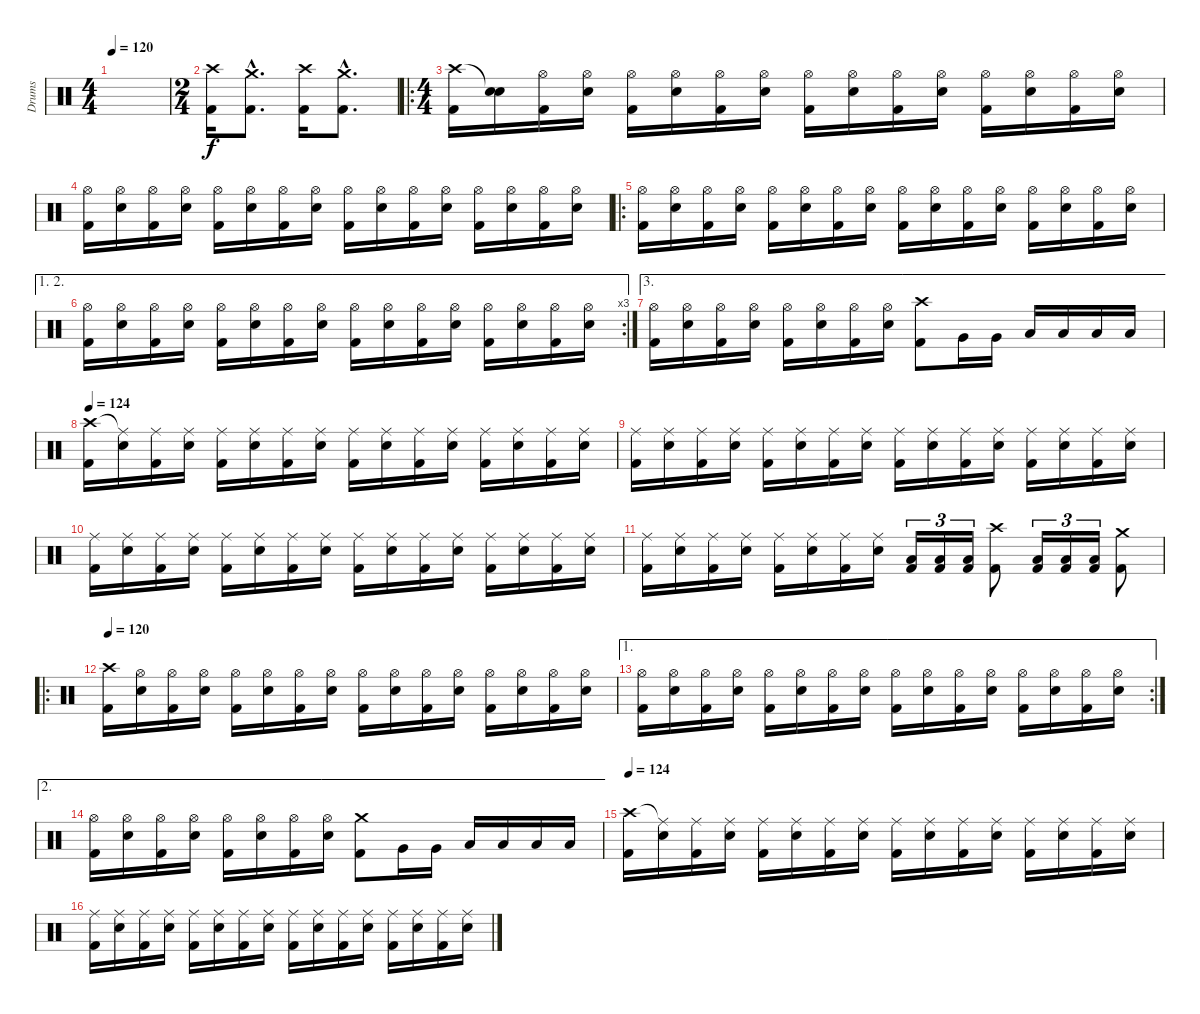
\track ("Drums" "Drums") {instrument percussion}
\staff {score}
\articulation defaults
\ts (4 4)
\tempo 120
\clef neutral
\ks c
|
\ts (2 4)
("Crash high (hit)" "Kick (hit) 2").16 ("Crash medium (hit)"{hac} "Kick (hit) 2"{hac}).8{d} ("Crash high (hit)" "Kick (hit) 2").16 ("Crash medium (hit)"{hac} "Kick (hit) 2"{hac}).8{d} |
\ro
\ts (4 4)
("Crash high (hit)" "Kick (hit) 2").16 ("Snare (hit)"{t} "Snare (hit) 2").16 ("Hi-Hat (open)" "Kick (hit) 2").16 ("Hi-Hat (open)" "Snare (hit) 2").16 ("Hi-Hat (open)" "Kick (hit) 2").16 ("Hi-Hat (open)" "Snare (hit) 2").16 ("Hi-Hat (open)" "Kick (hit) 2").16 ("Hi-Hat (open)" "Snare (hit) 2").16 ("Hi-Hat (open)" "Kick (hit) 2").16 ("Hi-Hat (open)" "Snare (hit) 2").16 ("Hi-Hat (open)" "Kick (hit) 2").16 ("Hi-Hat (open)" "Snare (hit) 2").16 ("Hi-Hat (open)" "Kick (hit) 2").16 ("Hi-Hat (open)" "Snare (hit) 2").16 ("Hi-Hat (open)" "Kick (hit) 2").16 ("Hi-Hat (open)" "Snare (hit) 2").16 |
("Hi-Hat (open)" "Kick (hit) 2").16 ("Hi-Hat (open)" "Snare (hit) 2").16 ("Hi-Hat (open)" "Kick (hit) 2").16 ("Hi-Hat (open)" "Snare (hit) 2").16 ("Hi-Hat (open)" "Kick (hit) 2").16 ("Hi-Hat (open)" "Snare (hit) 2").16 ("Hi-Hat (open)" "Kick (hit) 2").16 ("Hi-Hat (open)" "Snare (hit) 2").16 ("Hi-Hat (open)" "Kick (hit) 2").16 ("Hi-Hat (open)" "Snare (hit) 2").16 ("Hi-Hat (open)" "Kick (hit) 2").16 ("Hi-Hat (open)" "Snare (hit) 2").16 ("Hi-Hat (open)" "Kick (hit) 2").16 ("Hi-Hat (open)" "Snare (hit) 2").16 ("Hi-Hat (open)" "Kick (hit) 2").16 ("Hi-Hat (open)" "Snare (hit) 2").16 |
\ro
("Hi-Hat (open)" "Kick (hit) 2").16 ("Hi-Hat (open)" "Snare (hit) 2").16 ("Hi-Hat (open)" "Kick (hit) 2").16 ("Hi-Hat (open)" "Snare (hit) 2").16 ("Hi-Hat (open)" "Kick (hit) 2").16 ("Hi-Hat (open)" "Snare (hit) 2").16 ("Hi-Hat (open)" "Kick (hit) 2").16 ("Hi-Hat (open)" "Snare (hit) 2").16 ("Hi-Hat (open)" "Kick (hit) 2").16 ("Hi-Hat (open)" "Snare (hit) 2").16 ("Hi-Hat (open)" "Kick (hit) 2").16 ("Hi-Hat (open)" "Snare (hit) 2").16 ("Hi-Hat (open)" "Kick (hit) 2").16 ("Hi-Hat (open)" "Snare (hit) 2").16 ("Hi-Hat (open)" "Kick (hit) 2").16 ("Hi-Hat (open)" "Snare (hit) 2").16 |
\ae (1 2)
\rc 3
("Hi-Hat (open)" "Kick (hit) 2").16 ("Hi-Hat (open)" "Snare (hit) 2").16 ("Hi-Hat (open)" "Kick (hit) 2").16 ("Hi-Hat (open)" "Snare (hit) 2").16 ("Hi-Hat (open)" "Kick (hit) 2").16 ("Hi-Hat (open)" "Snare (hit) 2").16 ("Hi-Hat (open)" "Kick (hit) 2").16 ("Hi-Hat (open)" "Snare (hit) 2").16 ("Hi-Hat (open)" "Kick (hit) 2").16 ("Hi-Hat (open)" "Snare (hit) 2").16 ("Hi-Hat (open)" "Kick (hit) 2").16 ("Hi-Hat (open)" "Snare (hit) 2").16 ("Hi-Hat (open)" "Kick (hit) 2").16 ("Hi-Hat (open)" "Snare (hit) 2").16 ("Hi-Hat (open)" "Kick (hit) 2").16 ("Hi-Hat (open)" "Snare (hit) 2").16 |
\ae 3
("Hi-Hat (open)" "Kick (hit) 2").16 ("Hi-Hat (open)" "Snare (hit) 2").16 ("Hi-Hat (open)" "Kick (hit) 2").16 ("Hi-Hat (open)" "Snare (hit) 2").16 ("Hi-Hat (open)" "Kick (hit) 2").16 ("Hi-Hat (open)" "Snare (hit) 2").16 ("Hi-Hat (open)" "Kick (hit) 2").16 ("Hi-Hat (open)" "Snare (hit) 2").16 ("Crash high (hit)" "Kick (hit) 2").8 "Very Low Tom (hit)".16 "Very Low Tom (hit)".16 "Low Floor Tom (hit)".16 "Low Floor Tom (hit)".16 "Low Floor Tom (hit)".16 "Low Floor Tom (hit)".16 |
\tempo 124
("Crash high (hit)" "Kick (hit) 2").16 ("Ride (middle)"{t} "Snare (hit) 2").16 ("Ride (middle)" "Kick (hit) 2").16 ("Ride (middle)" "Snare (hit) 2").16 ("Ride (middle)" "Kick (hit) 2").16 ("Ride (middle)" "Snare (hit) 2").16 ("Ride (middle)" "Kick (hit) 2").16 ("Ride (middle)" "Snare (hit) 2").16 ("Ride (middle)" "Kick (hit) 2").16 ("Ride (middle)" "Snare (hit) 2").16 ("Ride (middle)" "Kick (hit) 2").16 ("Ride (middle)" "Snare (hit) 2").16 ("Ride (middle)" "Kick (hit) 2").16 ("Ride (middle)" "Snare (hit) 2").16 ("Ride (middle)" "Kick (hit) 2").16 ("Ride (middle)" "Snare (hit) 2").16 |
("Ride (middle)" "Kick (hit) 2").16 ("Ride (middle)" "Snare (hit) 2").16 ("Ride (middle)" "Kick (hit) 2").16 ("Ride (middle)" "Snare (hit) 2").16 ("Ride (middle)" "Kick (hit) 2").16 ("Ride (middle)" "Snare (hit) 2").16 ("Ride (middle)" "Kick (hit) 2").16 ("Ride (middle)" "Snare (hit) 2").16 ("Ride (middle)" "Kick (hit) 2").16 ("Ride (middle)" "Snare (hit) 2").16 ("Ride (middle)" "Kick (hit) 2").16 ("Ride (middle)" "Snare (hit) 2").16 ("Ride (middle)" "Kick (hit) 2").16 ("Ride (middle)" "Snare (hit) 2").16 ("Ride (middle)" "Kick (hit) 2").16 ("Ride (middle)" "Snare (hit) 2").16 |
("Ride (middle)" "Kick (hit) 2").16 ("Ride (middle)" "Snare (hit) 2").16 ("Ride (middle)" "Kick (hit) 2").16 ("Ride (middle)" "Snare (hit) 2").16 ("Ride (middle)" "Kick (hit) 2").16 ("Ride (middle)" "Snare (hit) 2").16 ("Ride (middle)" "Kick (hit) 2").16 ("Ride (middle)" "Snare (hit) 2").16 ("Ride (middle)" "Kick (hit) 2").16 ("Ride (middle)" "Snare (hit) 2").16 ("Ride (middle)" "Kick (hit) 2").16 ("Ride (middle)" "Snare (hit) 2").16 ("Ride (middle)" "Kick (hit) 2").16 ("Ride (middle)" "Snare (hit) 2").16 ("Ride (middle)" "Kick (hit) 2").16 ("Ride (middle)" "Snare (hit) 2").16 |
("Ride (middle)" "Kick (hit) 2").16 ("Ride (middle)" "Snare (hit) 2").16 ("Ride (middle)" "Kick (hit) 2").16 ("Ride (middle)" "Snare (hit) 2").16 ("Ride (middle)" "Kick (hit) 2").16 ("Ride (middle)" "Snare (hit) 2").16 ("Ride (middle)" "Kick (hit) 2").16 ("Ride (middle)" "Snare (hit) 2").16 ("Low Tom (hit)" "Kick (hit) 2").16{tu (3 2)} ("Low Tom (hit)" "Kick (hit) 2").16{tu (3 2)} ("Low Tom (hit)" "Kick (hit) 2").16{tu (3 2)} ("Crash high (hit)" "Kick (hit) 2").8 ("Low Tom (hit)" "Kick (hit) 2").16{tu (3 2)} ("Low Tom (hit)" "Kick (hit) 2").16{tu (3 2)} ("Low Tom (hit)" "Kick (hit) 2").16{tu (3 2)} ("Crash medium (hit)" "Kick (hit) 2").8 |
\ro
\tempo 120
("Crash high (hit)" "Kick (hit) 2").16 ("Hi-Hat (open)" "Snare (hit) 2").16 ("Hi-Hat (open)" "Kick (hit) 2").16 ("Hi-Hat (open)" "Snare (hit) 2").16 ("Hi-Hat (open)" "Kick (hit) 2").16 ("Hi-Hat (open)" "Snare (hit) 2").16 ("Hi-Hat (open)" "Kick (hit) 2").16 ("Hi-Hat (open)" "Snare (hit) 2").16 ("Hi-Hat (open)" "Kick (hit) 2").16 ("Hi-Hat (open)" "Snare (hit) 2").16 ("Hi-Hat (open)" "Kick (hit) 2").16 ("Hi-Hat (open)" "Snare (hit) 2").16 ("Hi-Hat (open)" "Kick (hit) 2").16 ("Hi-Hat (open)" "Snare (hit) 2").16 ("Hi-Hat (open)" "Kick (hit) 2").16 ("Hi-Hat (open)" "Snare (hit) 2").16 |
\ae 1
\rc 2
("Hi-Hat (open)" "Kick (hit) 2").16 ("Hi-Hat (open)" "Snare (hit) 2").16 ("Hi-Hat (open)" "Kick (hit) 2").16 ("Hi-Hat (open)" "Snare (hit) 2").16 ("Hi-Hat (open)" "Kick (hit) 2").16 ("Hi-Hat (open)" "Snare (hit) 2").16 ("Hi-Hat (open)" "Kick (hit) 2").16 ("Hi-Hat (open)" "Snare (hit) 2").16 ("Hi-Hat (open)" "Kick (hit) 2").16 ("Hi-Hat (open)" "Snare (hit) 2").16 ("Hi-Hat (open)" "Kick (hit) 2").16 ("Hi-Hat (open)" "Snare (hit) 2").16 ("Hi-Hat (open)" "Kick (hit) 2").16 ("Hi-Hat (open)" "Snare (hit) 2").16 ("Hi-Hat (open)" "Kick (hit) 2").16 ("Hi-Hat (open)" "Snare (hit) 2").16 |
\ae 2
("Hi-Hat (open)" "Kick (hit) 2").16 ("Hi-Hat (open)" "Snare (hit) 2").16 ("Hi-Hat (open)" "Kick (hit) 2").16 ("Hi-Hat (open)" "Snare (hit) 2").16 ("Hi-Hat (open)" "Kick (hit) 2").16 ("Hi-Hat (open)" "Snare (hit) 2").16 ("Hi-Hat (open)" "Kick (hit) 2").16 ("Hi-Hat (open)" "Snare (hit) 2").16 ("Crash medium (hit)" "Kick (hit) 2").8 "Very Low Tom (hit)".16 "Very Low Tom (hit)".16 "Low Floor Tom (hit)".16 "Low Floor Tom (hit)".16 "Low Floor Tom (hit)".16 "Low Floor Tom (hit)".16 |
\tempo 124
("Crash high (hit)" "Kick (hit) 2").16 ("Ride (middle)"{t} "Snare (hit) 2").16 ("Ride (middle)" "Kick (hit) 2").16 ("Ride (middle)" "Snare (hit) 2").16 ("Ride (middle)" "Kick (hit) 2").16 ("Ride (middle)" "Snare (hit) 2").16 ("Ride (middle)" "Kick (hit) 2").16 ("Ride (middle)" "Snare (hit) 2").16 ("Ride (middle)" "Kick (hit) 2").16 ("Ride (middle)" "Snare (hit) 2").16 ("Ride (middle)" "Kick (hit) 2").16 ("Ride (middle)" "Snare (hit) 2").16 ("Ride (middle)" "Kick (hit) 2").16 ("Ride (middle)" "Snare (hit) 2").16 ("Ride (middle)" "Kick (hit) 2").16 ("Ride (middle)" "Snare (hit) 2").16 |
("Ride (middle)" "Kick (hit) 2").16 ("Ride (middle)" "Snare (hit) 2").16 ("Ride (middle)" "Kick (hit) 2").16 ("Ride (middle)" "Snare (hit) 2").16 ("Ride (middle)" "Kick (hit) 2").16 ("Ride (middle)" "Snare (hit) 2").16 ("Ride (middle)" "Kick (hit) 2").16 ("Ride (middle)" "Snare (hit) 2").16 ("Ride (middle)" "Kick (hit) 2").16 ("Ride (middle)" "Snare (hit) 2").16 ("Ride (middle)" "Kick (hit) 2").16 ("Ride (middle)" "Snare (hit) 2").16 ("Ride (middle)" "Kick (hit) 2").16 ("Ride (middle)" "Snare (hit) 2").16 ("Ride (middle)" "Kick (hit) 2").16 ("Ride (middle)" "Snare (hit) 2").16
